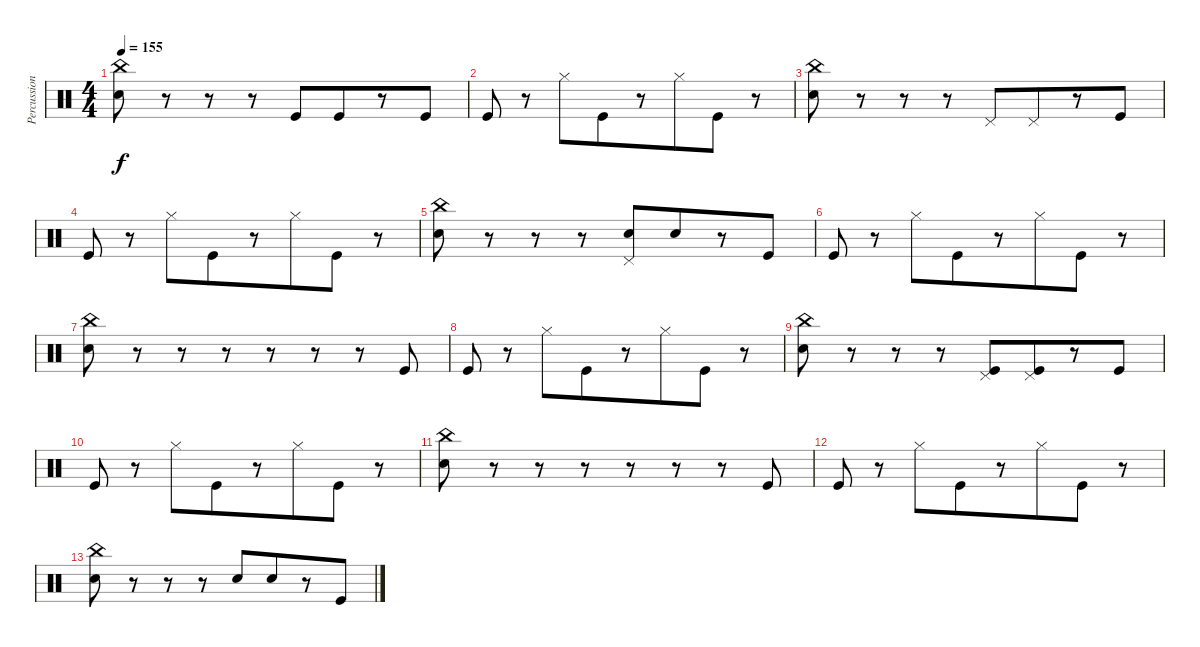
\track ("Percussion" "Percussion") {instrument percussion}
\staff {score}
\articulation defaults
\ts (4 4)
\tempo 155
\clef neutral
\ks c
("China (hit)" "Electric Snare (hit)").8{dy f} r.8 r.8 r.8 "Kick (hit)".8 "Kick (hit)".8{beam merge} r.8 "Kick (hit)".8 |
"Kick (hit)".8 r.8 "Hi-Hat (closed)".8 "Kick (hit)".8{beam merge} r.8 "Hi-Hat (closed)".8{beam merge} "Kick (hit)".8 r.8 |
("China (hit)" "Electric Snare (hit)").8 r.8 r.8 r.8 "Pedal Hi-Hat (hit)".8 "Pedal Hi-Hat (hit)".8{beam merge} r.8 "Kick (hit)".8 |
"Kick (hit)".8 r.8 "Hi-Hat (closed)".8 "Kick (hit)".8{beam merge} r.8 "Hi-Hat (closed)".8{beam merge} "Kick (hit)".8 r.8 |
("China (hit)" "Electric Snare (hit)").8 r.8 r.8 r.8 ("Pedal Hi-Hat (hit)" "Electric Snare (hit)").8 "Electric Snare (hit)".8{beam merge} r.8 "Kick (hit)".8 |
"Kick (hit)".8 r.8 "Hi-Hat (closed)".8 "Kick (hit)".8{beam merge} r.8 "Hi-Hat (closed)".8{beam merge} "Kick (hit)".8 r.8 |
("China (hit)" "Electric Snare (hit)").8 r.8 r.8 r.8 r.8 r.8{beam merge} r.8 "Kick (hit)".8 |
"Kick (hit)".8 r.8 "Hi-Hat (closed)".8 "Kick (hit)".8{beam merge} r.8 "Hi-Hat (closed)".8{beam merge} "Kick (hit)".8 r.8 |
("China (hit)" "Electric Snare (hit)").8 r.8 r.8 r.8 ("Pedal Hi-Hat (hit)" "Kick (hit)").8 ("Pedal Hi-Hat (hit)" "Kick (hit)").8{beam merge} r.8 "Kick (hit)".8 |
"Kick (hit)".8 r.8 "Hi-Hat (closed)".8 "Kick (hit)".8{beam merge} r.8 "Hi-Hat (closed)".8{beam merge} "Kick (hit)".8 r.8 |
("China (hit)" "Electric Snare (hit)").8 r.8 r.8 r.8 r.8 r.8{beam merge} r.8 "Kick (hit)".8 |
"Kick (hit)".8 r.8 "Hi-Hat (closed)".8 "Kick (hit)".8{beam merge} r.8 "Hi-Hat (closed)".8{beam merge} "Kick (hit)".8 r.8 |
("China (hit)" "Electric Snare (hit)").8 r.8 r.8 r.8 "Electric Snare (hit)".8 "Electric Snare (hit)".8{beam merge} r.8 "Kick (hit)".8
